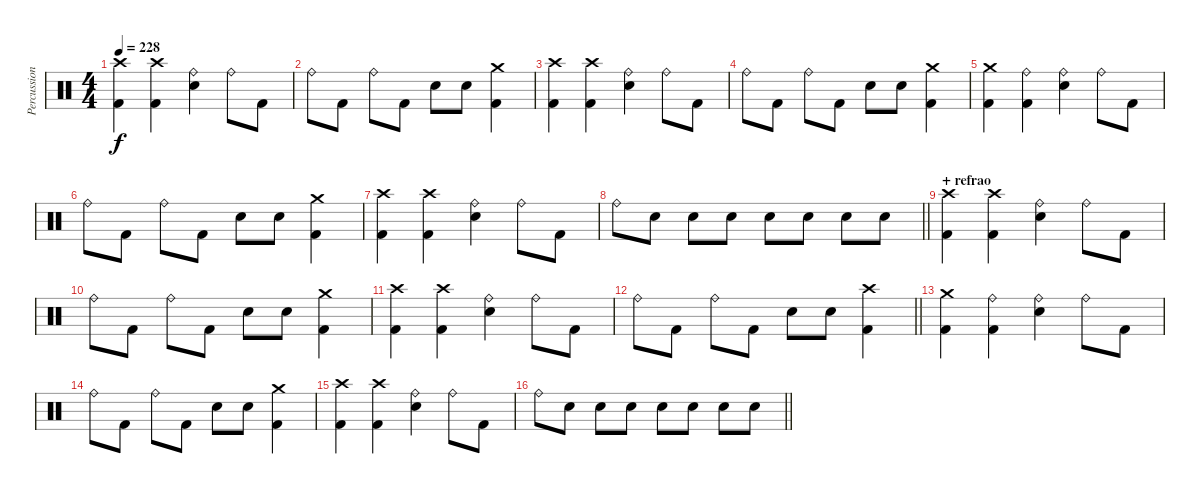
\track ("Percussion" "Percussion") {instrument percussion}
\staff {score}
\articulation defaults
\ts (4 4)
\tempo 228
\clef neutral
\ks c
("Crash high (hit)" "Kick (hit) 2").4{dy f} ("Crash high (hit)" "Kick (hit) 2").4 ("Ride (bell)" "Snare (hit) 2").4 "Ride (bell)".8 "Kick (hit) 2".8 |
"Ride (bell)".8 "Kick (hit) 2".8 "Ride (bell)".8 "Kick (hit) 2".8 "Snare (hit) 2".8 "Snare (hit) 2".8 ("Crash medium (hit)" "Kick (hit) 2").4 |
("Crash high (hit)" "Kick (hit) 2").4 ("Crash high (hit)" "Kick (hit) 2").4 ("Ride (bell)" "Snare (hit) 2").4 "Ride (bell)".8 "Kick (hit) 2".8 |
"Ride (bell)".8 "Kick (hit) 2".8 "Ride (bell)".8 "Kick (hit) 2".8 "Snare (hit) 2".8 "Snare (hit) 2".8 ("Crash medium (hit)" "Kick (hit) 2").4 |
("Crash medium (hit)" "Kick (hit) 2").4 ("Ride (bell)" "Kick (hit) 2").4 ("Ride (bell)" "Snare (hit) 2").4 "Ride (bell)".8 "Kick (hit) 2".8 |
"Ride (bell)".8 "Kick (hit) 2".8 "Ride (bell)".8 "Kick (hit) 2".8 "Snare (hit) 2".8 "Snare (hit) 2".8 ("Crash medium (hit)" "Kick (hit) 2").4 |
("Crash high (hit)" "Kick (hit) 2").4 ("Crash high (hit)" "Kick (hit) 2").4 ("Ride (bell)" "Snare (hit) 2").4 "Ride (bell)".8 "Kick (hit) 2".8 |
\barLineRight lightlight "Ride (bell)".8 "Snare (hit) 2".8 "Snare (hit) 2".8 "Snare (hit) 2".8 "Snare (hit) 2".8 "Snare (hit) 2".8 "Snare (hit) 2".8 "Snare (hit) 2".8
|
\section ("" "+ refrao")
("Crash high (hit)" "Kick (hit) 2").4 ("Crash high (hit)" "Kick (hit) 2").4 ("Ride (bell)" "Snare (hit) 2").4 "Ride (bell)".8 "Kick (hit) 2".8 |
"Ride (bell)".8 "Kick (hit) 2".8 "Ride (bell)".8 "Kick (hit) 2".8 "Snare (hit) 2".8 "Snare (hit) 2".8 ("Crash medium (hit)" "Kick (hit) 2").4 |
("Crash high (hit)" "Kick (hit) 2").4 ("Crash high (hit)" "Kick (hit) 2").4 ("Ride (bell)" "Snare (hit) 2").4 "Ride (bell)".8 "Kick (hit) 2".8 |
\barLineRight lightlight "Ride (bell)".8 "Kick (hit) 2".8 "Ride (bell)".8 "Kick (hit) 2".8 "Snare (hit) 2".8 "Snare (hit) 2".8
("Crash high (hit)" "Kick (hit) 2").4 |
("Crash medium (hit)" "Kick (hit) 2").4 ("Ride (bell)" "Kick (hit) 2").4 ("Ride (bell)" "Snare (hit) 2").4 "Ride (bell)".8 "Kick (hit) 2".8 |
"Ride (bell)".8 "Kick (hit) 2".8 "Ride (bell)".8 "Kick (hit) 2".8 "Snare (hit) 2".8 "Snare (hit) 2".8 ("Crash medium (hit)" "Kick (hit) 2").4 |
("Crash high (hit)" "Kick (hit) 2").4 ("Crash high (hit)" "Kick (hit) 2").4 ("Ride (bell)" "Snare (hit) 2").4 "Ride (bell)".8 "Kick (hit) 2".8 |
\barLineRight lightlight "Ride (bell)".8 "Snare (hit) 2".8 "Snare (hit) 2".8 "Snare (hit) 2".8 "Snare (hit) 2".8 "Snare (hit) 2".8 "Snare (hit) 2".8 "Snare (hit) 2".8
